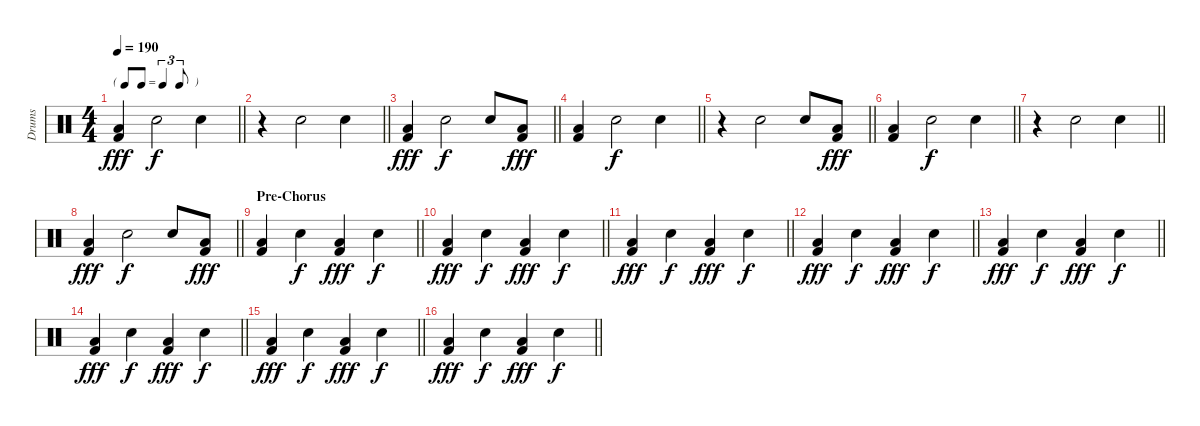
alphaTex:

\track ("Drums" "Drums") {instrument percussion}
\staff {score}
\articulation defaults
\ts (4 4)
\tf triplet8th
\tempo 190
\clef neutral
\barLineRight lightlight
\ks c
("Low Tom (hit)" "Kick (hit) 2").4{dy fff} "Hand Clap (hit)".2{dy f} "Hand Clap (hit)".4 |
\barLineRight lightlight
r.4 "Hand Clap (hit)".2 "Hand Clap (hit)".4 |
\barLineRight lightlight
("Low Tom (hit)" "Kick (hit) 2").4{dy fff} "Hand Clap (hit)".2{dy f} "Hand Clap (hit)".8 ("Low Tom (hit)" "Kick (hit) 2").8{dy fff} |
\barLineRight lightlight
("Low Tom (hit)" "Kick (hit) 2").4 "Hand Clap (hit)".2{dy f} "Hand Clap (hit)".4 |
\barLineRight lightlight
r.4 "Hand Clap (hit)".2 "Hand Clap (hit)".8 ("Low Tom (hit)" "Kick (hit) 2").8{dy fff} |
\barLineRight lightlight
("Low Tom (hit)" "Kick (hit) 2").4 "Hand Clap (hit)".2{dy f} "Hand Clap (hit)".4 |
\barLineRight lightlight
r.4 "Hand Clap (hit)".2 "Hand Clap (hit)".4 |
\barLineRight lightlight
("Low Tom (hit)" "Kick (hit) 2").4{dy fff} "Hand Clap (hit)".2{dy f} "Hand Clap (hit)".8 ("Low Tom (hit)" "Kick (hit) 2").8{dy fff} |
\section ("" "Pre-Chorus")
\barLineRight lightlight
("Low Tom (hit)" "Kick (hit) 2").4 "Hand Clap (hit)".4{dy f} ("Low Tom (hit)" "Kick (hit) 2").4{dy fff} "Hand Clap (hit)".4{dy f} |
\barLineRight lightlight
("Low Tom (hit)" "Kick (hit) 2").4{dy fff} "Hand Clap (hit)".4{dy f} ("Low Tom (hit)" "Kick (hit) 2").4{dy fff} "Hand Clap (hit)".4{dy f} |
\barLineRight lightlight
("Low Tom (hit)" "Kick (hit) 2").4{dy fff} "Hand Clap (hit)".4{dy f} ("Low Tom (hit)" "Kick (hit) 2").4{dy fff} "Hand Clap (hit)".4{dy f} |
\barLineRight lightlight
("Low Tom (hit)" "Kick (hit) 2").4{dy fff} "Hand Clap (hit)".4{dy f} ("Low Tom (hit)" "Kick (hit) 2").4{dy fff} "Hand Clap (hit)".4{dy f} |
\barLineRight lightlight
("Low Tom (hit)" "Kick (hit) 2").4{dy fff} "Hand Clap (hit)".4{dy f} ("Low Tom (hit)" "Kick (hit) 2").4{dy fff} "Hand Clap (hit)".4{dy f} |
\barLineRight lightlight
("Low Tom (hit)" "Kick (hit) 2").4{dy fff} "Hand Clap (hit)".4{dy f} ("Low Tom (hit)" "Kick (hit) 2").4{dy fff} "Hand Clap (hit)".4{dy f} |
\barLineRight lightlight
("Low Tom (hit)" "Kick (hit) 2").4{dy fff} "Hand Clap (hit)".4{dy f} ("Low Tom (hit)" "Kick (hit) 2").4{dy fff} "Hand Clap (hit)".4{dy f} |
\barLineRight lightlight
("Low Tom (hit)" "Kick (hit) 2").4{dy fff} "Hand Clap (hit)".4{dy f} ("Low Tom (hit)" "Kick (hit) 2").4{dy fff} "Hand Clap (hit)".4{dy f}
